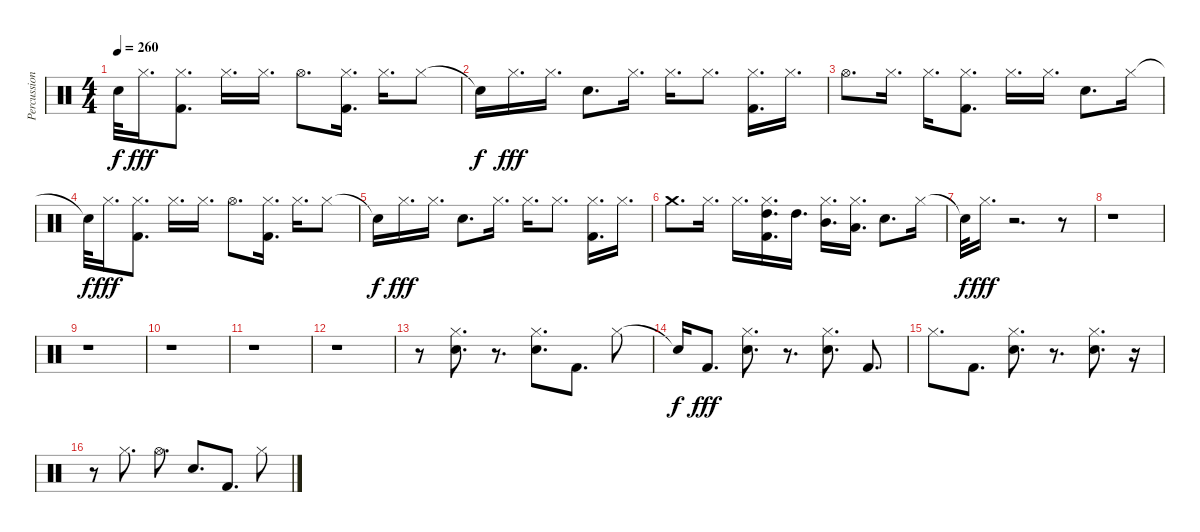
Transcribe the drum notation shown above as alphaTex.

\track ("Percussion" "Percussion") {instrument percussion}
\staff {score}
\articulation defaults
\ts (4 4)
\tempo 260
\clef neutral
\ks c "Snare (hit)"{t}.32{dy f} "Hi-Hat (closed)".16{d dy fff}
("Kick (hit) 2" "Hi-Hat (closed)").8{d} "Hi-Hat (closed)".16{d} "Hi-Hat (closed)".16{d} "Hi-Hat (open)".8{d} ("Kick (hit) 2" "Hi-Hat (closed)").16{d} "Hi-Hat (closed)".16{d} "Hi-Hat (closed)".8 |
"Snare (hit)"{t}.16{dy f} "Hi-Hat (closed)".16{d dy fff} "Hi-Hat (closed)".16{d} "Electric Snare (hit)".8{d} "Hi-Hat (closed)".16{d} "Hi-Hat (closed)".16{d} "Hi-Hat (closed)".8{d} ("Kick (hit) 2" "Hi-Hat (closed)").16{d} "Hi-Hat (closed)".16{d} |
"Hi-Hat (open)".8{d} "Hi-Hat (closed)".16{d} "Hi-Hat (closed)".16{d} ("Kick (hit) 2" "Hi-Hat (closed)").8{d} "Hi-Hat (closed)".16{d} "Hi-Hat (closed)".16{d} "Electric Snare (hit)".8{d} "Hi-Hat (closed)".16 |
"Snare (hit)"{t}.32{dy f} "Hi-Hat (closed)".16{d dy fff} ("Kick (hit) 2" "Hi-Hat (closed)").8{d} "Hi-Hat (closed)".16{d} "Hi-Hat (closed)".16{d} "Hi-Hat (open)".8{d} ("Kick (hit) 2" "Hi-Hat (closed)").16{d} "Hi-Hat (closed)".16{d} "Hi-Hat (closed)".8 |
"Snare (hit)"{t}.16{dy f} "Hi-Hat (closed)".16{d dy fff} "Hi-Hat (closed)".16{d} "Electric Snare (hit)".8{d} "Hi-Hat (closed)".16{d} "Hi-Hat (closed)".16{d} "Hi-Hat (closed)".8{d} ("Kick (hit) 2" "Hi-Hat (closed)").16{d} "Hi-Hat (closed)".16{d} |
"Crash medium (hit)".8{d} "Hi-Hat (closed)".16{d} "Hi-Hat (closed)".16{d} ("Kick (hit) 2" "Hi-Hat (closed)" "High Tom (hit)").16{d} "High Tom (hit)".16{d} ("Hi-Hat (closed)" "Mid Tom (hit)").16{d} ("Hi-Hat (closed)" "Low Tom (hit)").16{d} "Electric Snare (hit)".8{d} "Hi-Hat (closed)".16 |
"Snare (hit)"{t}.32{dy f} "Hi-Hat (closed)".16{d dy fff} r.2{d} r.8 |
r.1 |
r.1 |
r.1 |
r.1 |
r.1 |
r.8 ("Hi-Hat (closed)" "Electric Snare (hit)").8{d} r.8{d} ("Electric Snare (hit)" "Hi-Hat (closed)").8{d} "Kick (hit) 2".8{d} "Hi-Hat (closed)".8 |
"Snare (hit)"{t}.16{dy f} "Kick (hit) 2".8{d dy fff} ("Electric Snare (hit)" "Hi-Hat (closed)").8{d} r.8{d} ("Electric Snare (hit)" "Hi-Hat (closed)").8{d} "Kick (hit) 2".8{d} |
"Hi-Hat (closed)".8{d} "Kick (hit) 2".8{d} ("Electric Snare (hit)" "Hi-Hat (closed)").8{d} r.8{d} ("Hi-Hat (closed)" "Electric Snare (hit)").8{d} r.16 |
r.8 "Hi-Hat (closed)".8{d} "Hi-Hat (open)".8{d} "Electric Snare (hit)".8{d} "Kick (hit) 2".8{d} "Hi-Hat (closed)".8
